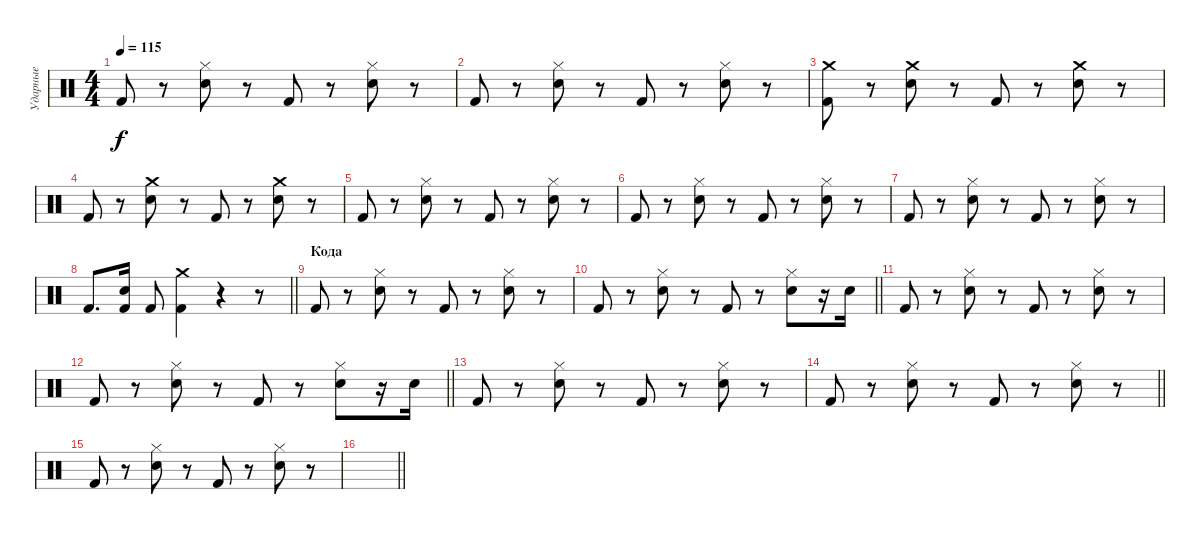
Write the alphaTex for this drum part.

\track ("Ударные" "Ударные") {instrument percussion}
\staff {score}
\articulation defaults
\ts (4 4)
\tempo 115
\clef neutral
\ks c "Kick (hit) 2".8{dy f}
r.8 ("Snare (hit) 2" "Hi-Hat (closed)").8 r.8 "Kick (hit) 2".8 r.8 ("Snare (hit) 2" "Hi-Hat (closed)").8 r.8 |
"Kick (hit) 2".8 r.8 ("Snare (hit) 2" "Hi-Hat (closed)").8 r.8 "Kick (hit) 2".8 r.8 ("Snare (hit) 2" "Hi-Hat (closed)").8 r.8 |
("Kick (hit) 2" "Crash medium (hit)").8 r.8 ("Snare (hit) 2" "Crash medium (hit)").8 r.8 "Kick (hit) 2".8 r.8 ("Snare (hit) 2" "Crash medium (hit)").8 r.8 |
"Kick (hit) 2".8 r.8 ("Snare (hit) 2" "Crash medium (hit)").8 r.8 "Kick (hit) 2".8 r.8 ("Snare (hit) 2" "Crash medium (hit)").8 r.8 |
"Kick (hit) 2".8 r.8 ("Snare (hit) 2" "Hi-Hat (closed)").8 r.8 "Kick (hit) 2".8 r.8 ("Snare (hit) 2" "Hi-Hat (closed)").8 r.8 |
"Kick (hit) 2".8 r.8 ("Snare (hit) 2" "Hi-Hat (closed)").8 r.8 "Kick (hit) 2".8 r.8 ("Snare (hit) 2" "Hi-Hat (closed)").8 r.8 |
"Kick (hit) 2".8 r.8 ("Snare (hit) 2" "Hi-Hat (closed)").8 r.8 "Kick (hit) 2".8 r.8 ("Snare (hit) 2" "Hi-Hat (closed)").8 r.8 |
\barLineRight lightlight "Kick (hit) 2".8{d}
("Kick (hit) 2" "Snare (hit) 2").16 "Kick (hit) 2".8 ("Kick (hit) 2" "Crash medium (hit)").4 r.4 r.8 |
\section ("" "Кода")
"Kick (hit) 2".8 r.8 ("Snare (hit) 2" "Hi-Hat (closed)").8 r.8 "Kick (hit) 2".8 r.8 ("Snare (hit) 2" "Hi-Hat (closed)").8 r.8 |
\barLineRight lightlight "Kick (hit) 2".8
r.8 ("Snare (hit) 2" "Hi-Hat (closed)").8 r.8 "Kick (hit) 2".8 r.8 ("Snare (hit) 2" "Hi-Hat (closed)").8 r.16 "Snare (hit) 2".16 |
"Kick (hit) 2".8 r.8 ("Snare (hit) 2" "Hi-Hat (closed)").8 r.8 "Kick (hit) 2".8 r.8 ("Snare (hit) 2" "Hi-Hat (closed)").8 r.8 |
\barLineRight lightlight "Kick (hit) 2".8
r.8 ("Snare (hit) 2" "Hi-Hat (closed)").8 r.8 "Kick (hit) 2".8 r.8 ("Snare (hit) 2" "Hi-Hat (closed)").8 r.16 "Snare (hit) 2".16 |
"Kick (hit) 2".8 r.8 ("Snare (hit) 2" "Hi-Hat (closed)").8 r.8 "Kick (hit) 2".8 r.8 ("Snare (hit) 2" "Hi-Hat (closed)").8 r.8 |
\barLineRight lightlight "Kick (hit) 2".8
r.8 ("Snare (hit) 2" "Hi-Hat (closed)").8 r.8 "Kick (hit) 2".8 r.8 ("Snare (hit) 2" "Hi-Hat (closed)").8 r.8 |
"Kick (hit) 2".8 r.8 ("Snare (hit) 2" "Hi-Hat (closed)").8 r.8 "Kick (hit) 2".8 r.8 ("Snare (hit) 2" "Hi-Hat (closed)").8 r.8 |
\barLineRight lightlight
